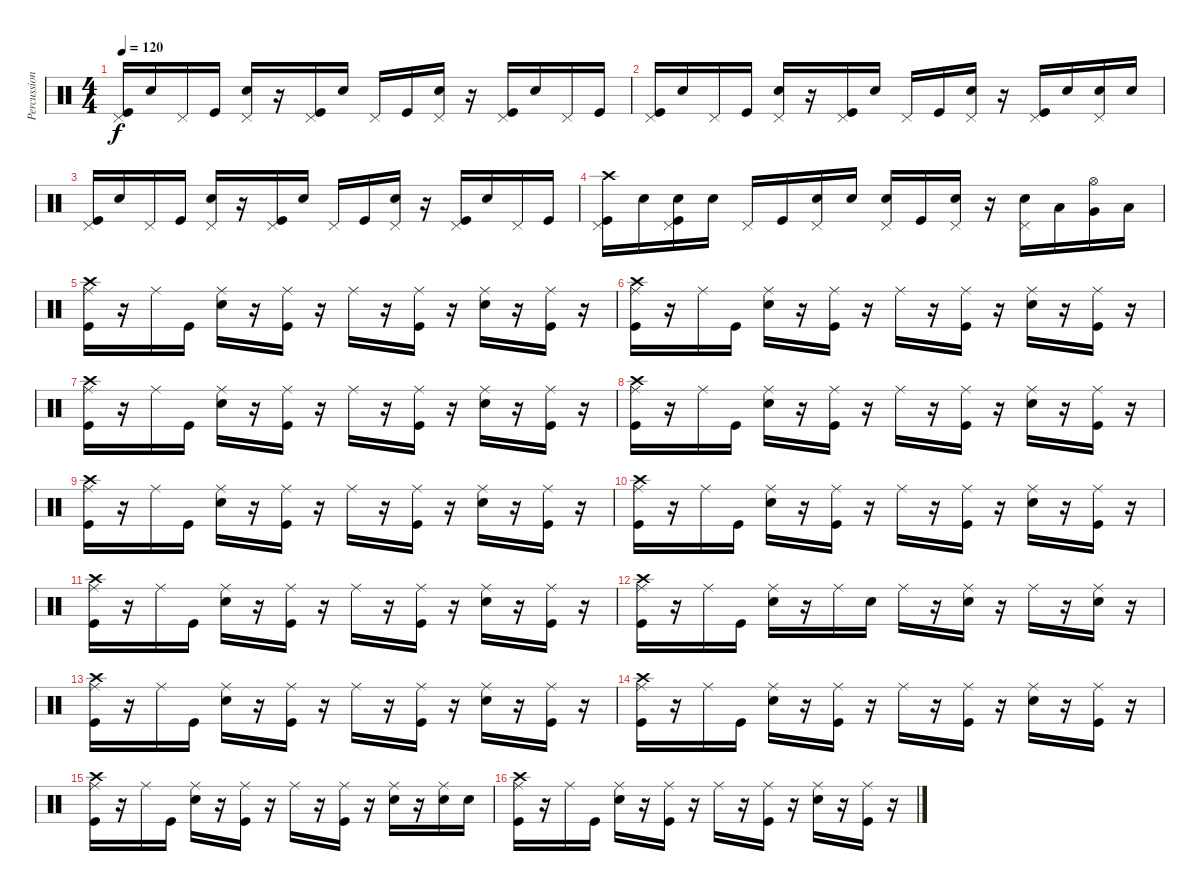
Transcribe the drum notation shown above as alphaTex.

\track ("Percussion" "Percussion") {instrument percussion}
\staff {score}
\articulation defaults
\ts (4 4)
\tempo 120
\clef neutral
\ks c
("Pedal Hi-Hat (hit)" "Kick (hit)").16{dy f} "Electric Snare (hit)".16 "Pedal Hi-Hat (hit)".16 "Kick (hit)".16 ("Pedal Hi-Hat (hit)" "Electric Snare (hit)").16 r.16 ("Pedal Hi-Hat (hit)" "Kick (hit)").16 "Electric Snare (hit)".16 "Pedal Hi-Hat (hit)".16 "Kick (hit)".16 ("Pedal Hi-Hat (hit)" "Electric Snare (hit)").16 r.16 ("Pedal Hi-Hat (hit)" "Kick (hit)").16 "Electric Snare (hit)".16 "Pedal Hi-Hat (hit)".16 "Kick (hit)".16 |
("Pedal Hi-Hat (hit)" "Kick (hit)").16 "Electric Snare (hit)".16 "Pedal Hi-Hat (hit)".16 "Kick (hit)".16 ("Pedal Hi-Hat (hit)" "Electric Snare (hit)").16 r.16 ("Pedal Hi-Hat (hit)" "Kick (hit)").16 "Electric Snare (hit)".16 "Pedal Hi-Hat (hit)".16 "Kick (hit)".16 ("Pedal Hi-Hat (hit)" "Electric Snare (hit)").16 r.16 ("Pedal Hi-Hat (hit)" "Kick (hit)").16 "Electric Snare (hit)".16 ("Pedal Hi-Hat (hit)" "Electric Snare (hit)").16 "Electric Snare (hit)".16 |
("Pedal Hi-Hat (hit)" "Kick (hit)").16 "Electric Snare (hit)".16 "Pedal Hi-Hat (hit)".16 "Kick (hit)".16 ("Pedal Hi-Hat (hit)" "Electric Snare (hit)").16 r.16 ("Pedal Hi-Hat (hit)" "Kick (hit)").16 "Electric Snare (hit)".16 "Pedal Hi-Hat (hit)".16 "Kick (hit)".16 ("Pedal Hi-Hat (hit)" "Electric Snare (hit)").16 r.16 ("Pedal Hi-Hat (hit)" "Kick (hit)").16 "Electric Snare (hit)".16 "Pedal Hi-Hat (hit)".16 "Kick (hit)".16 |
("Pedal Hi-Hat (hit)" "Crash high (hit)" "Kick (hit)").16 "Electric Snare (hit)".16 ("Pedal Hi-Hat (hit)" "Electric Snare (hit)" "Kick (hit)").16 "Electric Snare (hit)".16 "Pedal Hi-Hat (hit)".16 "Kick (hit)".16 ("Pedal Hi-Hat (hit)" "Electric Snare (hit)").16 "Electric Snare (hit)".16 ("Pedal Hi-Hat (hit)" "Electric Snare (hit)").16 "Kick (hit)".16 ("Pedal Hi-Hat (hit)" "Electric Snare (hit)").16 r.16 ("Pedal Hi-Hat (hit)" "Electric Snare (hit)").16 "Low Tom (hit)".16 ("Hi-Hat (open)" "Very Low Tom (hit)").16 "Low Floor Tom (hit)".16 |
("Crash high (hit)" "Ride (middle)" "Kick (hit)").16 r.16 "Ride (middle)".16 "Kick (hit)".16 ("Ride (middle)" "Electric Snare (hit)").16 r.16 ("Ride (middle)" "Kick (hit)").16 r.16 "Ride (middle)".16 r.16 ("Ride (middle)" "Kick (hit)").16 r.16 ("Ride (middle)" "Electric Snare (hit)").16 r.16 ("Ride (middle)" "Kick (hit)").16 r.16 |
("Crash high (hit)" "Ride (middle)" "Kick (hit)").16 r.16 "Ride (middle)".16 "Kick (hit)".16 ("Ride (middle)" "Electric Snare (hit)").16 r.16 ("Ride (middle)" "Kick (hit)").16 r.16 "Ride (middle)".16 r.16 ("Ride (middle)" "Kick (hit)").16 r.16 ("Ride (middle)" "Electric Snare (hit)").16 r.16 ("Ride (middle)" "Kick (hit)").16 r.16 |
("Crash high (hit)" "Ride (middle)" "Kick (hit)").16 r.16 "Ride (middle)".16 "Kick (hit)".16 ("Ride (middle)" "Electric Snare (hit)").16 r.16 ("Ride (middle)" "Kick (hit)").16 r.16 "Ride (middle)".16 r.16 ("Ride (middle)" "Kick (hit)").16 r.16 ("Ride (middle)" "Electric Snare (hit)").16 r.16 ("Ride (middle)" "Kick (hit)").16 r.16 |
("Crash high (hit)" "Ride (middle)" "Kick (hit)").16 r.16 "Ride (middle)".16 "Kick (hit)".16 ("Ride (middle)" "Electric Snare (hit)").16 r.16 ("Ride (middle)" "Kick (hit)").16 r.16 "Ride (middle)".16 r.16 ("Ride (middle)" "Kick (hit)").16 r.16 ("Ride (middle)" "Electric Snare (hit)").16 r.16 ("Ride (middle)" "Kick (hit)").16 r.16 |
("Crash high (hit)" "Ride (middle)" "Kick (hit)").16 r.16 "Ride (middle)".16 "Kick (hit)".16 ("Ride (middle)" "Electric Snare (hit)").16 r.16 ("Ride (middle)" "Kick (hit)").16 r.16 "Ride (middle)".16 r.16 ("Ride (middle)" "Kick (hit)").16 r.16 ("Ride (middle)" "Electric Snare (hit)").16 r.16 ("Ride (middle)" "Kick (hit)").16 r.16 |
("Crash high (hit)" "Ride (middle)" "Kick (hit)").16 r.16 "Ride (middle)".16 "Kick (hit)".16 ("Ride (middle)" "Electric Snare (hit)").16 r.16 ("Ride (middle)" "Kick (hit)").16 r.16 "Ride (middle)".16 r.16 ("Ride (middle)" "Kick (hit)").16 r.16 ("Ride (middle)" "Electric Snare (hit)").16 r.16 ("Ride (middle)" "Kick (hit)").16 r.16 |
("Crash high (hit)" "Ride (middle)" "Kick (hit)").16 r.16 "Ride (middle)".16 "Kick (hit)".16 ("Ride (middle)" "Electric Snare (hit)").16 r.16 ("Ride (middle)" "Kick (hit)").16 r.16 "Ride (middle)".16 r.16 ("Ride (middle)" "Kick (hit)").16 r.16 ("Ride (middle)" "Electric Snare (hit)").16 r.16 ("Ride (middle)" "Kick (hit)").16 r.16 |
("Crash high (hit)" "Ride (middle)" "Kick (hit)").16 r.16 "Ride (middle)".16 "Kick (hit)".16 ("Ride (middle)" "Electric Snare (hit)").16 r.16 "Ride (middle)".16 "Electric Snare (hit)".16 "Ride (middle)".16 r.16 ("Ride (middle)" "Electric Snare (hit)").16 r.16 "Ride (middle)".16 r.16 ("Ride (middle)" "Electric Snare (hit)").16 r.16 |
("Crash high (hit)" "Ride (middle)" "Kick (hit)").16 r.16 "Ride (middle)".16 "Kick (hit)".16 ("Ride (middle)" "Electric Snare (hit)").16 r.16 ("Ride (middle)" "Kick (hit)").16 r.16 "Ride (middle)".16 r.16 ("Ride (middle)" "Kick (hit)").16 r.16 ("Ride (middle)" "Electric Snare (hit)").16 r.16 ("Ride (middle)" "Kick (hit)").16 r.16 |
("Crash high (hit)" "Ride (middle)" "Kick (hit)").16 r.16 "Ride (middle)".16 "Kick (hit)".16 ("Ride (middle)" "Electric Snare (hit)").16 r.16 ("Ride (middle)" "Kick (hit)").16 r.16 "Ride (middle)".16 r.16 ("Ride (middle)" "Kick (hit)").16 r.16 ("Ride (middle)" "Electric Snare (hit)").16 r.16 ("Ride (middle)" "Kick (hit)").16 r.16 |
("Crash high (hit)" "Ride (middle)" "Kick (hit)").16 r.16 "Ride (middle)".16 "Kick (hit)".16 ("Ride (middle)" "Electric Snare (hit)").16 r.16 ("Ride (middle)" "Kick (hit)").16 r.16 "Ride (middle)".16 r.16 ("Ride (middle)" "Kick (hit)").16 r.16 ("Ride (middle)" "Electric Snare (hit)").16 r.16 ("Ride (middle)" "Electric Snare (hit)").16 "Electric Snare (hit)".16 |
("Crash high (hit)" "Ride (middle)" "Kick (hit)").16 r.16 "Ride (middle)".16 "Kick (hit)".16 ("Ride (middle)" "Electric Snare (hit)").16 r.16 ("Ride (middle)" "Kick (hit)").16 r.16 "Ride (middle)".16 r.16 ("Ride (middle)" "Kick (hit)").16 r.16 ("Ride (middle)" "Electric Snare (hit)").16 r.16 ("Ride (middle)" "Kick (hit)").16 r.16
